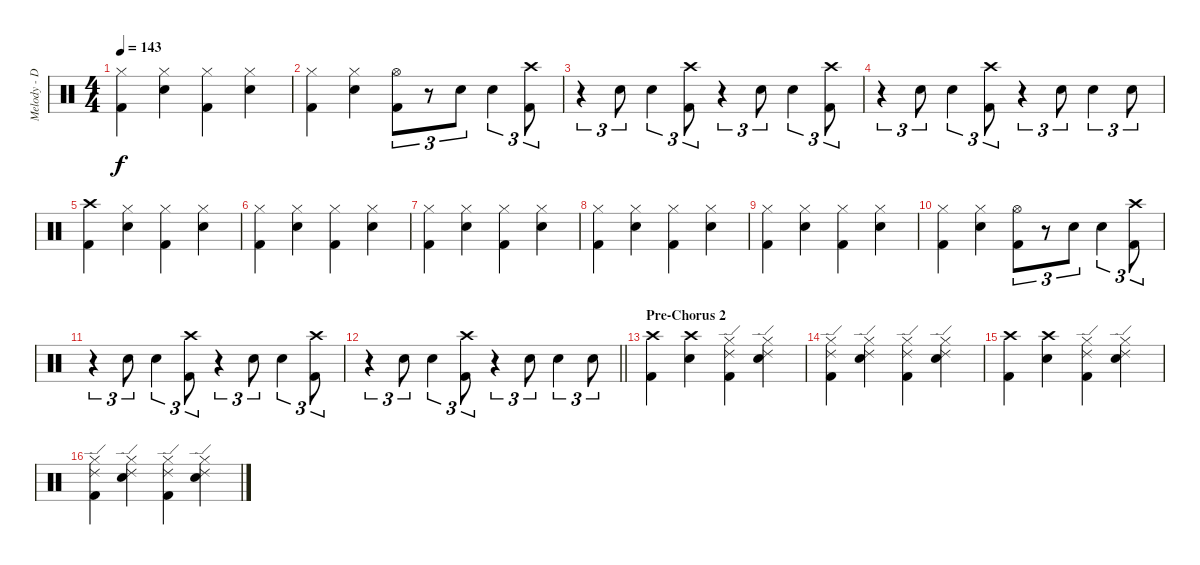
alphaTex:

\track ("Melody - Drums" "Melody - D") {instrument percussion}
\staff {score}
\articulation defaults
\ts (4 4)
\tempo 143
\clef neutral
\ks c
("Hi-Hat (closed)" "Kick (hit) 2").4{dy f} ("Hi-Hat (closed)" "Electric Snare (hit)").4 ("Hi-Hat (closed)" "Kick (hit) 2").4 ("Hi-Hat (closed)" "Electric Snare (hit)").4 |
("Hi-Hat (closed)" "Kick (hit) 2").4 ("Hi-Hat (closed)" "Electric Snare (hit)").4 ("Hi-Hat (open)" "Kick (hit) 2").8{tu (3 2)} r.8{tu (3 2)} "Electric Snare (hit)".8{tu (3 2)} "Electric Snare (hit)".4{tu (3 2)} ("Crash high (hit)" "Kick (hit) 2").8{tu (3 2)} |
r.4{tu (3 2)} "Electric Snare (hit)".8{tu (3 2)} "Electric Snare (hit)".4{tu (3 2)} ("Crash high (hit)" "Kick (hit) 2").8{tu (3 2)} r.4{tu (3 2)} "Electric Snare (hit)".8{tu (3 2)} "Electric Snare (hit)".4{tu (3 2)} ("Crash high (hit)" "Kick (hit) 2").8{tu (3 2)} |
r.4{tu (3 2)} "Electric Snare (hit)".8{tu (3 2)} "Electric Snare (hit)".4{tu (3 2)} ("Crash high (hit)" "Kick (hit) 2").8{tu (3 2)} r.4{tu (3 2)} "Electric Snare (hit)".8{tu (3 2)} "Electric Snare (hit)".4{tu (3 2)} "Electric Snare (hit)".8{tu (3 2)} |
("Crash high (hit)" "Kick (hit) 2").4 ("Hi-Hat (closed)" "Electric Snare (hit)").4 ("Hi-Hat (closed)" "Kick (hit) 2").4 ("Hi-Hat (closed)" "Electric Snare (hit)").4 |
("Hi-Hat (closed)" "Kick (hit) 2").4 ("Hi-Hat (closed)" "Electric Snare (hit)").4 ("Hi-Hat (closed)" "Kick (hit) 2").4 ("Hi-Hat (closed)" "Electric Snare (hit)").4 |
("Hi-Hat (closed)" "Kick (hit) 2").4 ("Hi-Hat (closed)" "Electric Snare (hit)").4 ("Hi-Hat (closed)" "Kick (hit) 2").4 ("Hi-Hat (closed)" "Electric Snare (hit)").4 |
("Hi-Hat (closed)" "Kick (hit) 2").4 ("Hi-Hat (closed)" "Electric Snare (hit)").4 ("Hi-Hat (closed)" "Kick (hit) 2").4 ("Hi-Hat (closed)" "Electric Snare (hit)").4 |
("Hi-Hat (closed)" "Kick (hit) 2").4 ("Hi-Hat (closed)" "Electric Snare (hit)").4 ("Hi-Hat (closed)" "Kick (hit) 2").4 ("Hi-Hat (closed)" "Electric Snare (hit)").4 |
("Hi-Hat (closed)" "Kick (hit) 2").4 ("Hi-Hat (closed)" "Electric Snare (hit)").4 ("Hi-Hat (open)" "Kick (hit) 2").8{tu (3 2)} r.8{tu (3 2)} "Electric Snare (hit)".8{tu (3 2)} "Electric Snare (hit)".4{tu (3 2)} ("Crash high (hit)" "Kick (hit) 2").8{tu (3 2)} |
r.4{tu (3 2)} "Electric Snare (hit)".8{tu (3 2)} "Electric Snare (hit)".4{tu (3 2)} ("Crash high (hit)" "Kick (hit) 2").8{tu (3 2)} r.4{tu (3 2)} "Electric Snare (hit)".8{tu (3 2)} "Electric Snare (hit)".4{tu (3 2)} ("Crash high (hit)" "Kick (hit) 2").8{tu (3 2)} |
\barLineRight lightlight
r.4{tu (3 2)} "Electric Snare (hit)".8{tu (3 2)} "Electric Snare (hit)".4{tu (3 2)} ("Crash high (hit)" "Kick (hit) 2").8{tu (3 2)} r.4{tu (3 2)} "Electric Snare (hit)".8{tu (3 2)} "Electric Snare (hit)".4{tu (3 2)} "Electric Snare (hit)".8{tu (3 2)} |
\section ("" "Pre-Chorus 2")
("Crash high (hit)" "Kick (hit) 2").4 ("Crash high (hit)" "Electric Snare (hit)").4 ("Hi-Hat (closed)" "Ride (edge) 2" "Kick (hit) 2").4 ("Hi-Hat (closed)" "Ride (edge) 2" "Electric Snare (hit)").4 |
("Hi-Hat (closed)" "Ride (edge) 2" "Kick (hit) 2").4 ("Hi-Hat (closed)" "Ride (edge) 2" "Electric Snare (hit)").4 ("Hi-Hat (closed)" "Ride (edge) 2" "Kick (hit) 2").4 ("Hi-Hat (closed)" "Ride (edge) 2" "Electric Snare (hit)").4 |
("Crash high (hit)" "Kick (hit) 2").4 ("Crash high (hit)" "Electric Snare (hit)").4 ("Hi-Hat (closed)" "Ride (edge) 2" "Kick (hit) 2").4 ("Hi-Hat (closed)" "Ride (edge) 2" "Electric Snare (hit)").4 |
("Hi-Hat (closed)" "Ride (edge) 2" "Kick (hit) 2").4 ("Hi-Hat (closed)" "Ride (edge) 2" "Electric Snare (hit)").4 ("Hi-Hat (closed)" "Ride (edge) 2" "Kick (hit) 2").4 ("Hi-Hat (closed)" "Ride (edge) 2" "Electric Snare (hit)").4
